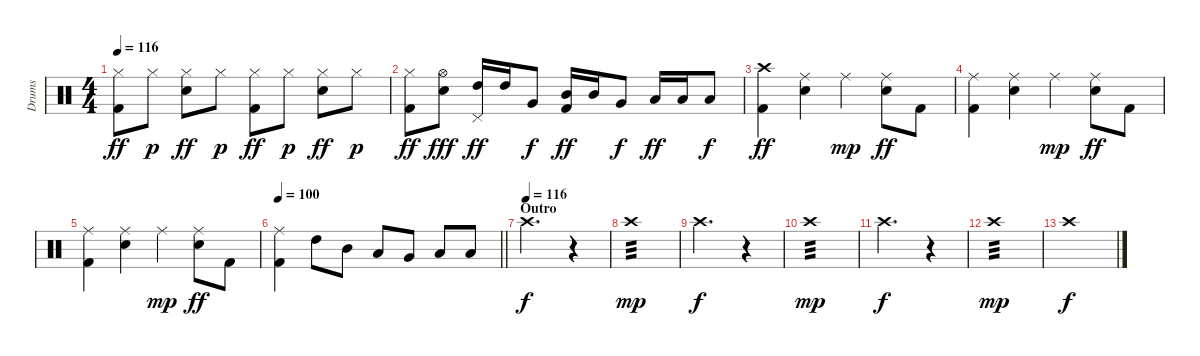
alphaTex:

\track ("Drums" "Drums") {instrument percussion}
\staff {score}
\articulation defaults
\ts (4 4)
\tempo 116
\clef neutral
\ks c
("Hi-Hat (closed)" "Kick (hit) 2").8{dy ff} "Hi-Hat (closed)".8{dy p} ("Hi-Hat (closed)" "Snare (hit) 2").8{dy ff} "Hi-Hat (closed)".8{dy p} ("Hi-Hat (closed)" "Kick (hit) 2").8{dy ff} "Hi-Hat (closed)".8{dy p} ("Hi-Hat (closed)" "Snare (hit) 2").8{dy ff} "Hi-Hat (closed)".8{dy p} |
("Hi-Hat (closed)" "Kick (hit) 2").8{dy ff} ("Hi-Hat (open)" "Snare (hit) 2").8{dy fff} ("Pedal Hi-Hat (hit)" "High Tom (hit)").16{dy ff} "High Tom (hit)".16 "Very Low Tom (hit)".8{dy f} ("Mid Tom (hit)" "Kick (hit) 2").16{dy ff} "Mid Tom (hit)".16 "Very Low Tom (hit)".8{dy f} "Low Tom (hit)".16{dy ff} "Low Tom (hit)".16 "Low Floor Tom (hit)".8{dy f} |
("Crash high (hit)" "Kick (hit) 2").4{dy ff} ("Ride (middle)" "Snare (hit) 2").4 "Ride (middle)".4{dy mp} ("Ride (middle)" "Snare (hit) 2").8{dy ff} "Kick (hit) 2".8 |
("Ride (middle)" "Kick (hit) 2").4 ("Ride (middle)" "Snare (hit) 2").4 "Ride (middle)".4{dy mp} ("Ride (middle)" "Snare (hit) 2").8{dy ff} "Kick (hit) 2".8 |
("Ride (middle)" "Kick (hit) 2").4 ("Ride (middle)" "Snare (hit) 2").4 "Ride (middle)".4{dy mp} ("Ride (middle)" "Snare (hit) 2").8{dy ff} "Kick (hit) 2".8 |
\tempo 100
\barLineRight lightlight
("Ride (middle)" "Kick (hit) 2").4 "High Tom (hit)".8 "Mid Tom (hit)".8 "Low Tom (hit)".8 "Very Low Tom (hit)".8 "Low Floor Tom (hit)".8 "Low Floor Tom (hit)".8 |
\section ("" "Outro")
\tempo (116)
"Crash high (hit)".2{d dy f volume 13} r.4{volume 0} |
"Crash high (hit)".1{tp 3 dy mp volume 9} |
"Crash high (hit)".2{d dy f volume 13} r.4{volume 0} |
"Crash high (hit)".1{tp 3 dy mp volume 9} |
"Crash high (hit)".2{d dy f volume 13} r.4{volume 0} |
"Crash high (hit)".1{tp 3 dy mp volume 9} |
"Crash high (hit)".1{dy f volume 13}
